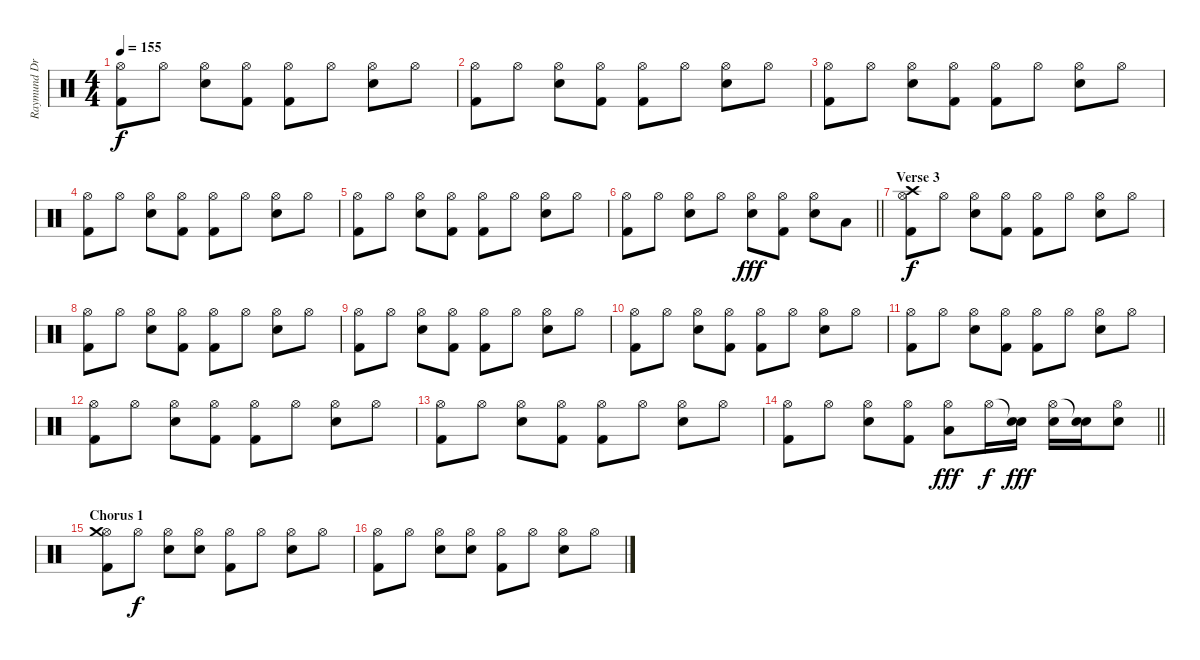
\track ("Raymund Drums" "Raymund Dr") {instrument percussion}
\staff {score}
\articulation defaults
\ts (4 4)
\tempo 155
\clef neutral
\ks c
("Hi-Hat (open)" "Kick (hit) 2").8{dy f} "Hi-Hat (open)".8 ("Hi-Hat (open)" "Snare (hit) 2").8 ("Hi-Hat (open)" "Kick (hit) 2").8 ("Hi-Hat (open)" "Kick (hit) 2").8 "Hi-Hat (open)".8 ("Hi-Hat (open)" "Snare (hit) 2").8 "Hi-Hat (open)".8 |
("Hi-Hat (open)" "Kick (hit) 2").8 "Hi-Hat (open)".8 ("Hi-Hat (open)" "Snare (hit) 2").8 ("Hi-Hat (open)" "Kick (hit) 2").8 ("Hi-Hat (open)" "Kick (hit) 2").8 "Hi-Hat (open)".8 ("Hi-Hat (open)" "Snare (hit) 2").8 "Hi-Hat (open)".8 |
("Hi-Hat (open)" "Kick (hit) 2").8 "Hi-Hat (open)".8 ("Hi-Hat (open)" "Snare (hit) 2").8 ("Hi-Hat (open)" "Kick (hit) 2").8 ("Hi-Hat (open)" "Kick (hit) 2").8 "Hi-Hat (open)".8 ("Hi-Hat (open)" "Snare (hit) 2").8 "Hi-Hat (open)".8 |
("Hi-Hat (open)" "Kick (hit) 2").8 "Hi-Hat (open)".8 ("Hi-Hat (open)" "Snare (hit) 2").8 ("Hi-Hat (open)" "Kick (hit) 2").8 ("Hi-Hat (open)" "Kick (hit) 2").8 "Hi-Hat (open)".8 ("Hi-Hat (open)" "Snare (hit) 2").8 "Hi-Hat (open)".8 |
("Hi-Hat (open)" "Kick (hit) 2").8 "Hi-Hat (open)".8 ("Hi-Hat (open)" "Snare (hit) 2").8 ("Hi-Hat (open)" "Kick (hit) 2").8 ("Hi-Hat (open)" "Kick (hit) 2").8 "Hi-Hat (open)".8 ("Hi-Hat (open)" "Snare (hit) 2").8 "Hi-Hat (open)".8 |
\barLineRight lightlight
("Hi-Hat (open)" "Kick (hit) 2").8 "Hi-Hat (open)".8 ("Hi-Hat (open)" "Snare (hit) 2").8 "Hi-Hat (open)".8 ("Hi-Hat (open)" "Snare (hit) 2").8{dy fff} ("Hi-Hat (open)" "Kick (hit) 2").8 ("Hi-Hat (open)" "Snare (hit) 2").8 "Low Tom (hit)".8 |
\section ("" "Verse 3")
("Hi-Hat (open)" "Kick (hit) 2" "Crash high (hit)").8{dy f} "Hi-Hat (open)".8 ("Hi-Hat (open)" "Snare (hit) 2").8 ("Hi-Hat (open)" "Kick (hit) 2").8 ("Hi-Hat (open)" "Kick (hit) 2").8 "Hi-Hat (open)".8 ("Hi-Hat (open)" "Snare (hit) 2").8 "Hi-Hat (open)".8 |
("Hi-Hat (open)" "Kick (hit) 2").8 "Hi-Hat (open)".8 ("Hi-Hat (open)" "Snare (hit) 2").8 ("Hi-Hat (open)" "Kick (hit) 2").8 ("Hi-Hat (open)" "Kick (hit) 2").8 "Hi-Hat (open)".8 ("Hi-Hat (open)" "Snare (hit) 2").8 "Hi-Hat (open)".8 |
("Hi-Hat (open)" "Kick (hit) 2").8 "Hi-Hat (open)".8 ("Hi-Hat (open)" "Snare (hit) 2").8 ("Hi-Hat (open)" "Kick (hit) 2").8 ("Hi-Hat (open)" "Kick (hit) 2").8 "Hi-Hat (open)".8 ("Hi-Hat (open)" "Snare (hit) 2").8 "Hi-Hat (open)".8 |
("Hi-Hat (open)" "Kick (hit) 2").8 "Hi-Hat (open)".8 ("Hi-Hat (open)" "Snare (hit) 2").8 ("Hi-Hat (open)" "Kick (hit) 2").8 ("Hi-Hat (open)" "Kick (hit) 2").8 "Hi-Hat (open)".8 ("Hi-Hat (open)" "Snare (hit) 2").8 "Hi-Hat (open)".8 |
("Hi-Hat (open)" "Kick (hit) 2").8 "Hi-Hat (open)".8 ("Hi-Hat (open)" "Snare (hit) 2").8 ("Hi-Hat (open)" "Kick (hit) 2").8 ("Hi-Hat (open)" "Kick (hit) 2").8 "Hi-Hat (open)".8 ("Hi-Hat (open)" "Snare (hit) 2").8 "Hi-Hat (open)".8 |
("Hi-Hat (open)" "Kick (hit) 2").8 "Hi-Hat (open)".8 ("Hi-Hat (open)" "Snare (hit) 2").8 ("Hi-Hat (open)" "Kick (hit) 2").8 ("Hi-Hat (open)" "Kick (hit) 2").8 "Hi-Hat (open)".8 ("Hi-Hat (open)" "Snare (hit) 2").8 "Hi-Hat (open)".8 |
("Hi-Hat (open)" "Kick (hit) 2").8 "Hi-Hat (open)".8 ("Hi-Hat (open)" "Snare (hit) 2").8 ("Hi-Hat (open)" "Kick (hit) 2").8 ("Hi-Hat (open)" "Kick (hit) 2").8 "Hi-Hat (open)".8 ("Hi-Hat (open)" "Snare (hit) 2").8 "Hi-Hat (open)".8 |
\barLineRight lightlight
("Hi-Hat (open)" "Kick (hit) 2").8 "Hi-Hat (open)".8 ("Hi-Hat (open)" "Snare (hit) 2").8 ("Hi-Hat (open)" "Kick (hit) 2").8 ("Hi-Hat (open)" "Low Tom (hit)").8{dy fff} "Hi-Hat (open)".16{dy f} ("Snare (hit)"{t} "Snare (hit) 2").16{dy fff} ("Hi-Hat (open)" "Snare (hit) 2").16 ("Snare (hit)"{t} "Snare (hit) 2").16 ("Hi-Hat (open)" "Snare (hit) 2").8 |
\section ("" "Chorus 1")
("Hi-Hat (open)" "Kick (hit) 2" "Crash medium (hit)").8 "Hi-Hat (open)".8{dy f} ("Hi-Hat (open)" "Snare (hit) 2").8 ("Hi-Hat (open)" "Snare (hit) 2").8 ("Hi-Hat (open)" "Kick (hit) 2").8 "Hi-Hat (open)".8 ("Hi-Hat (open)" "Snare (hit) 2").8 "Hi-Hat (open)".8 |
("Hi-Hat (open)" "Kick (hit) 2").8 "Hi-Hat (open)".8 ("Hi-Hat (open)" "Snare (hit) 2").8 ("Hi-Hat (open)" "Snare (hit) 2").8 ("Hi-Hat (open)" "Kick (hit) 2").8 "Hi-Hat (open)".8 ("Hi-Hat (open)" "Snare (hit) 2").8 "Hi-Hat (open)".8
